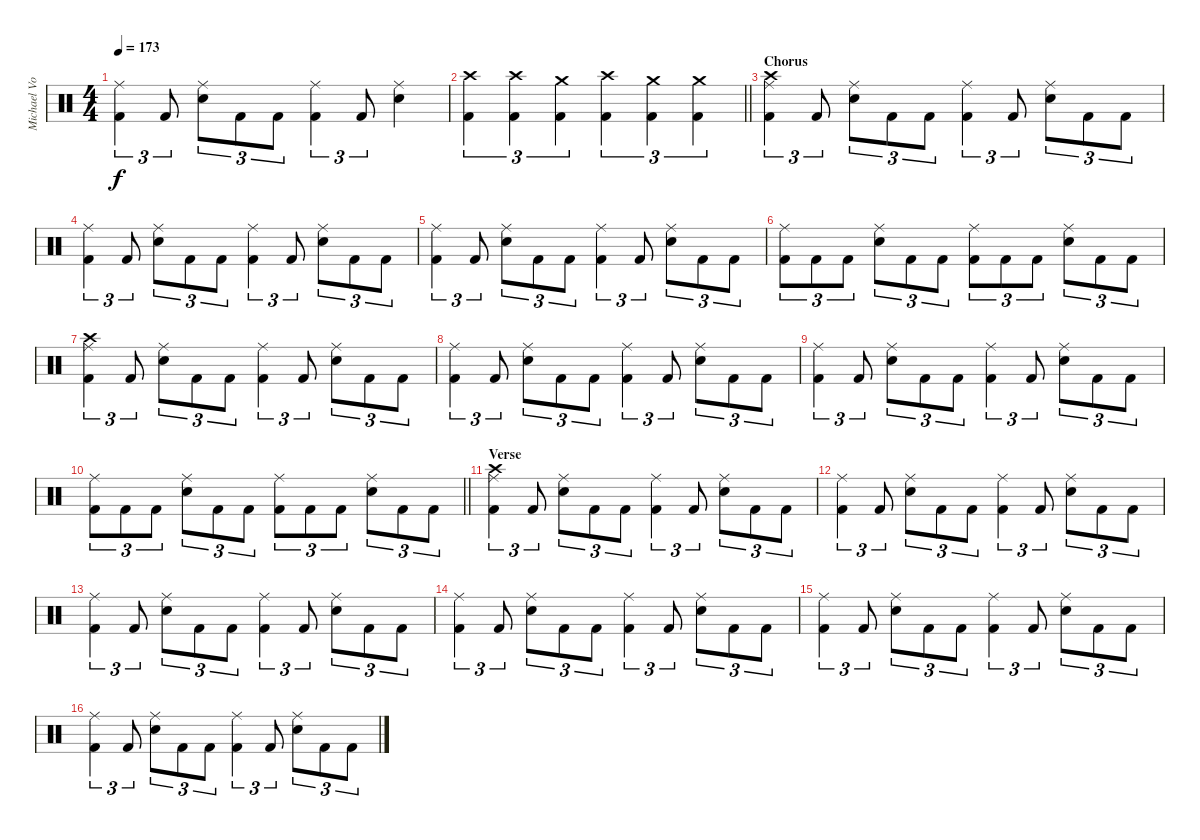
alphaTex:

\track ("Michael Von Knorring " "Michael Vo") {instrument percussion}
\staff {score}
\articulation defaults
\ts (4 4)
\tempo 173
\clef neutral
\ks c
("Ride (middle)" "Kick (hit) 2").4{tu (3 2) dy f} "Kick (hit) 2".8{tu (3 2)} ("Ride (middle)" "Snare (hit) 2").8{tu (3 2)} "Kick (hit) 2".8{tu (3 2)} "Kick (hit) 2".8{tu (3 2)} ("Ride (middle)" "Kick (hit) 2").4{tu (3 2)} "Kick (hit) 2".8{tu (3 2)} ("Ride (middle)" "Snare (hit) 2").4 |
\barLineRight lightlight
("Crash high (hit)" "Kick (hit) 2").4{tu (3 2)} ("Crash high (hit)" "Kick (hit) 2").4{tu (3 2)} ("Crash medium (hit)" "Kick (hit) 2").4{tu (3 2)} ("Crash high (hit)" "Kick (hit) 2").4{tu (3 2)} ("Crash medium (hit)" "Kick (hit) 2").4{tu (3 2)} ("Crash medium (hit)" "Kick (hit) 2").4{tu (3 2)} |
\section ("" "Chorus")
("Crash high (hit)" "Ride (middle)" "Kick (hit) 2").4{tu (3 2)} "Kick (hit) 2".8{tu (3 2)} ("Ride (middle)" "Snare (hit) 2").8{tu (3 2)} "Kick (hit) 2".8{tu (3 2)} "Kick (hit) 2".8{tu (3 2)} ("Ride (middle)" "Kick (hit) 2").4{tu (3 2)} "Kick (hit) 2".8{tu (3 2)} ("Ride (middle)" "Snare (hit) 2").8{tu (3 2)} "Kick (hit) 2".8{tu (3 2)} "Kick (hit) 2".8{tu (3 2)} |
("Ride (middle)" "Kick (hit) 2").4{tu (3 2)} "Kick (hit) 2".8{tu (3 2)} ("Ride (middle)" "Snare (hit) 2").8{tu (3 2)} "Kick (hit) 2".8{tu (3 2)} "Kick (hit) 2".8{tu (3 2)} ("Ride (middle)" "Kick (hit) 2").4{tu (3 2)} "Kick (hit) 2".8{tu (3 2)} ("Ride (middle)" "Snare (hit) 2").8{tu (3 2)} "Kick (hit) 2".8{tu (3 2)} "Kick (hit) 2".8{tu (3 2)} |
("Ride (middle)" "Kick (hit) 2").4{tu (3 2)} "Kick (hit) 2".8{tu (3 2)} ("Ride (middle)" "Snare (hit) 2").8{tu (3 2)} "Kick (hit) 2".8{tu (3 2)} "Kick (hit) 2".8{tu (3 2)} ("Ride (middle)" "Kick (hit) 2").4{tu (3 2)} "Kick (hit) 2".8{tu (3 2)} ("Ride (middle)" "Snare (hit) 2").8{tu (3 2)} "Kick (hit) 2".8{tu (3 2)} "Kick (hit) 2".8{tu (3 2)} |
("Ride (middle)" "Kick (hit) 2").8{tu (3 2)} "Kick (hit) 2".8{tu (3 2)} "Kick (hit) 2".8{tu (3 2)} ("Ride (middle)" "Snare (hit) 2").8{tu (3 2)} "Kick (hit) 2".8{tu (3 2)} "Kick (hit) 2".8{tu (3 2)} ("Ride (middle)" "Kick (hit) 2").8{tu (3 2)} "Kick (hit) 2".8{tu (3 2)} "Kick (hit) 2".8{tu (3 2)} ("Ride (middle)" "Snare (hit) 2").8{tu (3 2)} "Kick (hit) 2".8{tu (3 2)} "Kick (hit) 2".8{tu (3 2)} |
("Crash high (hit)" "Ride (middle)" "Kick (hit) 2").4{tu (3 2)} "Kick (hit) 2".8{tu (3 2)} ("Ride (middle)" "Snare (hit) 2").8{tu (3 2)} "Kick (hit) 2".8{tu (3 2)} "Kick (hit) 2".8{tu (3 2)} ("Ride (middle)" "Kick (hit) 2").4{tu (3 2)} "Kick (hit) 2".8{tu (3 2)} ("Ride (middle)" "Snare (hit) 2").8{tu (3 2)} "Kick (hit) 2".8{tu (3 2)} "Kick (hit) 2".8{tu (3 2)} |
("Ride (middle)" "Kick (hit) 2").4{tu (3 2)} "Kick (hit) 2".8{tu (3 2)} ("Ride (middle)" "Snare (hit) 2").8{tu (3 2)} "Kick (hit) 2".8{tu (3 2)} "Kick (hit) 2".8{tu (3 2)} ("Ride (middle)" "Kick (hit) 2").4{tu (3 2)} "Kick (hit) 2".8{tu (3 2)} ("Ride (middle)" "Snare (hit) 2").8{tu (3 2)} "Kick (hit) 2".8{tu (3 2)} "Kick (hit) 2".8{tu (3 2)} |
("Ride (middle)" "Kick (hit) 2").4{tu (3 2)} "Kick (hit) 2".8{tu (3 2)} ("Ride (middle)" "Snare (hit) 2").8{tu (3 2)} "Kick (hit) 2".8{tu (3 2)} "Kick (hit) 2".8{tu (3 2)} ("Ride (middle)" "Kick (hit) 2").4{tu (3 2)} "Kick (hit) 2".8{tu (3 2)} ("Ride (middle)" "Snare (hit) 2").8{tu (3 2)} "Kick (hit) 2".8{tu (3 2)} "Kick (hit) 2".8{tu (3 2)} |
\barLineRight lightlight
("Ride (middle)" "Kick (hit) 2").8{tu (3 2)} "Kick (hit) 2".8{tu (3 2)} "Kick (hit) 2".8{tu (3 2)} ("Ride (middle)" "Snare (hit) 2").8{tu (3 2)} "Kick (hit) 2".8{tu (3 2)} "Kick (hit) 2".8{tu (3 2)} ("Ride (middle)" "Kick (hit) 2").8{tu (3 2)} "Kick (hit) 2".8{tu (3 2)} "Kick (hit) 2".8{tu (3 2)} ("Ride (middle)" "Snare (hit) 2").8{tu (3 2)} "Kick (hit) 2".8{tu (3 2)} "Kick (hit) 2".8{tu (3 2)} |
\section ("" "Verse")
("Crash high (hit)" "Ride (middle)" "Kick (hit) 2").4{tu (3 2)} "Kick (hit) 2".8{tu (3 2)} ("Ride (middle)" "Snare (hit) 2").8{tu (3 2)} "Kick (hit) 2".8{tu (3 2)} "Kick (hit) 2".8{tu (3 2)} ("Ride (middle)" "Kick (hit) 2").4{tu (3 2)} "Kick (hit) 2".8{tu (3 2)} ("Ride (middle)" "Snare (hit) 2").8{tu (3 2)} "Kick (hit) 2".8{tu (3 2)} "Kick (hit) 2".8{tu (3 2)} |
("Ride (middle)" "Kick (hit) 2").4{tu (3 2)} "Kick (hit) 2".8{tu (3 2)} ("Ride (middle)" "Snare (hit) 2").8{tu (3 2)} "Kick (hit) 2".8{tu (3 2)} "Kick (hit) 2".8{tu (3 2)} ("Ride (middle)" "Kick (hit) 2").4{tu (3 2)} "Kick (hit) 2".8{tu (3 2)} ("Ride (middle)" "Snare (hit) 2").8{tu (3 2)} "Kick (hit) 2".8{tu (3 2)} "Kick (hit) 2".8{tu (3 2)} |
("Ride (middle)" "Kick (hit) 2").4{tu (3 2)} "Kick (hit) 2".8{tu (3 2)} ("Ride (middle)" "Snare (hit) 2").8{tu (3 2)} "Kick (hit) 2".8{tu (3 2)} "Kick (hit) 2".8{tu (3 2)} ("Ride (middle)" "Kick (hit) 2").4{tu (3 2)} "Kick (hit) 2".8{tu (3 2)} ("Ride (middle)" "Snare (hit) 2").8{tu (3 2)} "Kick (hit) 2".8{tu (3 2)} "Kick (hit) 2".8{tu (3 2)} |
("Ride (middle)" "Kick (hit) 2").4{tu (3 2)} "Kick (hit) 2".8{tu (3 2)} ("Ride (middle)" "Snare (hit) 2").8{tu (3 2)} "Kick (hit) 2".8{tu (3 2)} "Kick (hit) 2".8{tu (3 2)} ("Ride (middle)" "Kick (hit) 2").4{tu (3 2)} "Kick (hit) 2".8{tu (3 2)} ("Ride (middle)" "Snare (hit) 2").8{tu (3 2)} "Kick (hit) 2".8{tu (3 2)} "Kick (hit) 2".8{tu (3 2)} |
("Ride (middle)" "Kick (hit) 2").4{tu (3 2)} "Kick (hit) 2".8{tu (3 2)} ("Ride (middle)" "Snare (hit) 2").8{tu (3 2)} "Kick (hit) 2".8{tu (3 2)} "Kick (hit) 2".8{tu (3 2)} ("Ride (middle)" "Kick (hit) 2").4{tu (3 2)} "Kick (hit) 2".8{tu (3 2)} ("Ride (middle)" "Snare (hit) 2").8{tu (3 2)} "Kick (hit) 2".8{tu (3 2)} "Kick (hit) 2".8{tu (3 2)} |
("Ride (middle)" "Kick (hit) 2").4{tu (3 2)} "Kick (hit) 2".8{tu (3 2)} ("Ride (middle)" "Snare (hit) 2").8{tu (3 2)} "Kick (hit) 2".8{tu (3 2)} "Kick (hit) 2".8{tu (3 2)} ("Ride (middle)" "Kick (hit) 2").4{tu (3 2)} "Kick (hit) 2".8{tu (3 2)} ("Ride (middle)" "Snare (hit) 2").8{tu (3 2)} "Kick (hit) 2".8{tu (3 2)} "Kick (hit) 2".8{tu (3 2)}
